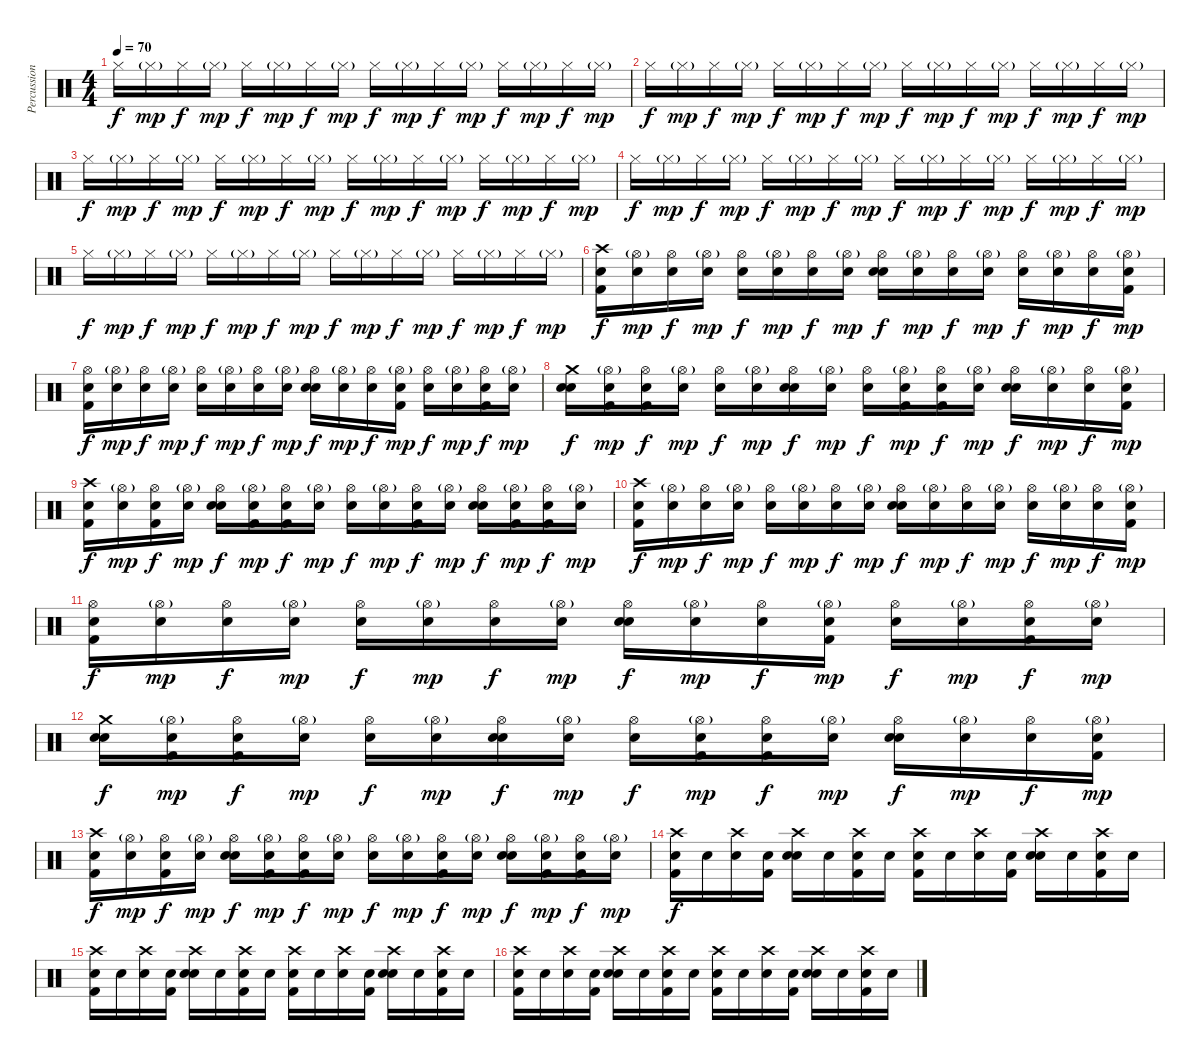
\track ("Percussion" "Percussion") {instrument percussion}
\staff {score}
\articulation defaults
\ts (4 4)
\tempo 70
\clef neutral
\ks c "Hi-Hat (closed)".16{dy f} "Hi-Hat (closed)"{g}.16{dy mp} "Hi-Hat (closed)".16{dy f} "Hi-Hat (closed)"{g}.16{dy mp} "Hi-Hat (closed)".16{dy f} "Hi-Hat (closed)"{g}.16{dy mp} "Hi-Hat (closed)".16{dy f} "Hi-Hat (closed)"{g}.16{dy mp} "Hi-Hat (closed)".16{dy f} "Hi-Hat (closed)"{g}.16{dy mp} "Hi-Hat (closed)".16{dy f} "Hi-Hat (closed)"{g}.16{dy mp} "Hi-Hat (closed)".16{dy f} "Hi-Hat (closed)"{g}.16{dy mp} "Hi-Hat (closed)".16{dy f} "Hi-Hat (closed)"{g}.16{dy mp}
|
"Hi-Hat (closed)".16{dy f} "Hi-Hat (closed)"{g}.16{dy mp} "Hi-Hat (closed)".16{dy f} "Hi-Hat (closed)"{g}.16{dy mp} "Hi-Hat (closed)".16{dy f} "Hi-Hat (closed)"{g}.16{dy mp} "Hi-Hat (closed)".16{dy f} "Hi-Hat (closed)"{g}.16{dy mp} "Hi-Hat (closed)".16{dy f} "Hi-Hat (closed)"{g}.16{dy mp} "Hi-Hat (closed)".16{dy f} "Hi-Hat (closed)"{g}.16{dy mp} "Hi-Hat (closed)".16{dy f} "Hi-Hat (closed)"{g}.16{dy mp} "Hi-Hat (closed)".16{dy f} "Hi-Hat (closed)"{g}.16{dy mp} |
"Hi-Hat (closed)".16{dy f} "Hi-Hat (closed)"{g}.16{dy mp} "Hi-Hat (closed)".16{dy f} "Hi-Hat (closed)"{g}.16{dy mp} "Hi-Hat (closed)".16{dy f} "Hi-Hat (closed)"{g}.16{dy mp} "Hi-Hat (closed)".16{dy f} "Hi-Hat (closed)"{g}.16{dy mp} "Hi-Hat (closed)".16{dy f} "Hi-Hat (closed)"{g}.16{dy mp} "Hi-Hat (closed)".16{dy f} "Hi-Hat (closed)"{g}.16{dy mp} "Hi-Hat (closed)".16{dy f} "Hi-Hat (closed)"{g}.16{dy mp} "Hi-Hat (closed)".16{dy f} "Hi-Hat (closed)"{g}.16{dy mp} |
"Hi-Hat (closed)".16{dy f} "Hi-Hat (closed)"{g}.16{dy mp} "Hi-Hat (closed)".16{dy f} "Hi-Hat (closed)"{g}.16{dy mp} "Hi-Hat (closed)".16{dy f} "Hi-Hat (closed)"{g}.16{dy mp} "Hi-Hat (closed)".16{dy f} "Hi-Hat (closed)"{g}.16{dy mp} "Hi-Hat (closed)".16{dy f} "Hi-Hat (closed)"{g}.16{dy mp} "Hi-Hat (closed)".16{dy f} "Hi-Hat (closed)"{g}.16{dy mp} "Hi-Hat (closed)".16{dy f} "Hi-Hat (closed)"{g}.16{dy mp} "Hi-Hat (closed)".16{dy f} "Hi-Hat (closed)"{g}.16{dy mp} |
"Hi-Hat (closed)".16{dy f} "Hi-Hat (closed)"{g}.16{dy mp} "Hi-Hat (closed)".16{dy f} "Hi-Hat (closed)"{g}.16{dy mp} "Hi-Hat (closed)".16{dy f} "Hi-Hat (closed)"{g}.16{dy mp} "Hi-Hat (closed)".16{dy f} "Hi-Hat (closed)"{g}.16{dy mp} "Hi-Hat (closed)".16{dy f} "Hi-Hat (closed)"{g}.16{dy mp} "Hi-Hat (closed)".16{dy f} "Hi-Hat (closed)"{g}.16{dy mp} "Hi-Hat (closed)".16{dy f} "Hi-Hat (closed)"{g}.16{dy mp} "Hi-Hat (closed)".16{dy f} "Hi-Hat (closed)"{g}.16{dy mp} |
("Snare (hit)" "Crash high (hit)" "Kick (hit) 2").16{dy f} ("Snare (hit)" "Hi-Hat (open)"{g}).16{dy mp} ("Snare (hit)" "Hi-Hat (open)").16{dy f} ("Snare (hit)" "Hi-Hat (open)"{g}).16{dy mp} ("Snare (hit)" "Hi-Hat (open)").16{dy f} ("Snare (hit)" "Hi-Hat (open)"{g}).16{dy mp} ("Snare (hit)" "Hi-Hat (open)").16{dy f} ("Snare (hit)" "Hi-Hat (open)"{g}).16{dy mp} ("Snare (hit)" "Hi-Hat (open)" "Snare (hit) 2").16{dy f} ("Snare (hit)" "Hi-Hat (open)"{g}).16{dy mp} ("Snare (hit)" "Hi-Hat (open)").16{dy f} ("Snare (hit)" "Hi-Hat (open)"{g}).16{dy mp} ("Snare (hit)" "Hi-Hat (open)").16{dy f} ("Snare (hit)" "Hi-Hat (open)"{g}).16{dy mp} ("Snare (hit)" "Hi-Hat (open)").16{dy f} ("Snare (hit)" "Hi-Hat (open)"{g} "Kick (hit) 2").16{dy mp} |
("Snare (hit)" "Hi-Hat (open)" "Kick (hit) 2").16{dy f} ("Snare (hit)" "Hi-Hat (open)"{g}).16{dy mp} ("Snare (hit)" "Hi-Hat (open)").16{dy f} ("Snare (hit)" "Hi-Hat (open)"{g}).16{dy mp} ("Snare (hit)" "Hi-Hat (open)").16{dy f} ("Snare (hit)" "Hi-Hat (open)"{g}).16{dy mp} ("Snare (hit)" "Hi-Hat (open)").16{dy f} ("Snare (hit)" "Hi-Hat (open)"{g}).16{dy mp} ("Snare (hit)" "Hi-Hat (open)" "Snare (hit) 2").16{dy f} ("Snare (hit)" "Hi-Hat (open)"{g}).16{dy mp} ("Snare (hit)" "Hi-Hat (open)").16{dy f} ("Snare (hit)" "Hi-Hat (open)"{g} "Kick (hit) 2").16{dy mp} ("Snare (hit)" "Hi-Hat (open)").16{dy f} ("Snare (hit)" "Hi-Hat (open)"{g}).16{dy mp} ("Snare (hit)" "Hi-Hat (open)" "Kick (hit) 2").16{dy f} ("Snare (hit)" "Hi-Hat (open)"{g}).16{dy mp} |
("Snare (hit)" "Crash medium (hit)" "Snare (hit) 2").16{dy f} ("Snare (hit)" "Hi-Hat (open)"{g} "Kick (hit) 2").16{dy mp} ("Snare (hit)" "Hi-Hat (open)" "Kick (hit) 2").16{dy f} ("Snare (hit)" "Hi-Hat (open)"{g}).16{dy mp} ("Snare (hit)" "Hi-Hat (open)").16{dy f} ("Snare (hit)" "Hi-Hat (open)"{g}).16{dy mp} ("Snare (hit)" "Hi-Hat (open)" "Snare (hit) 2").16{dy f} ("Snare (hit)" "Hi-Hat (open)"{g}).16{dy mp} ("Snare (hit)" "Hi-Hat (open)").16{dy f} ("Snare (hit)" "Hi-Hat (open)"{g} "Kick (hit) 2").16{dy mp} ("Snare (hit)" "Hi-Hat (open)" "Kick (hit) 2").16{dy f} ("Snare (hit)" "Hi-Hat (open)"{g}).16{dy mp} ("Snare (hit)" "Hi-Hat (open)" "Snare (hit) 2").16{dy f} ("Snare (hit)" "Hi-Hat (open)"{g}).16{dy mp} ("Snare (hit)" "Hi-Hat (open)").16{dy f} ("Snare (hit)" "Hi-Hat (open)"{g} "Kick (hit) 2").16{dy mp} |
("Snare (hit)" "Crash high (hit)" "Kick (hit) 2").16{dy f} ("Snare (hit)" "Hi-Hat (open)"{g}).16{dy mp} ("Snare (hit)" "Hi-Hat (open)" "Kick (hit) 2").16{dy f} ("Snare (hit)" "Hi-Hat (open)"{g}).16{dy mp} ("Snare (hit)" "Hi-Hat (open)" "Snare (hit) 2").16{dy f} ("Snare (hit)" "Hi-Hat (open)"{g} "Kick (hit) 2").16{dy mp} ("Snare (hit)" "Hi-Hat (open)" "Kick (hit) 2").16{dy f} ("Snare (hit)" "Hi-Hat (open)"{g}).16{dy mp} ("Snare (hit)" "Hi-Hat (open)").16{dy f} ("Snare (hit)" "Hi-Hat (open)"{g}).16{dy mp} ("Snare (hit)" "Hi-Hat (open)" "Kick (hit) 2").16{dy f} ("Snare (hit)" "Hi-Hat (open)"{g}).16{dy mp} ("Snare (hit)" "Hi-Hat (open)" "Snare (hit) 2").16{dy f} ("Snare (hit)" "Hi-Hat (open)"{g} "Kick (hit) 2").16{dy mp} ("Snare (hit)" "Hi-Hat (open)" "Kick (hit) 2").16{dy f} ("Snare (hit)" "Hi-Hat (open)"{g}).16{dy mp} |
("Snare (hit)" "Crash high (hit)" "Kick (hit) 2").16{dy f} ("Snare (hit)" "Hi-Hat (open)"{g}).16{dy mp} ("Snare (hit)" "Hi-Hat (open)").16{dy f} ("Snare (hit)" "Hi-Hat (open)"{g}).16{dy mp} ("Snare (hit)" "Hi-Hat (open)").16{dy f} ("Snare (hit)" "Hi-Hat (open)"{g}).16{dy mp} ("Snare (hit)" "Hi-Hat (open)").16{dy f} ("Snare (hit)" "Hi-Hat (open)"{g}).16{dy mp} ("Snare (hit)" "Hi-Hat (open)" "Snare (hit) 2").16{dy f} ("Snare (hit)" "Hi-Hat (open)"{g}).16{dy mp} ("Snare (hit)" "Hi-Hat (open)").16{dy f} ("Snare (hit)" "Hi-Hat (open)"{g}).16{dy mp} ("Snare (hit)" "Hi-Hat (open)").16{dy f} ("Snare (hit)" "Hi-Hat (open)"{g}).16{dy mp} ("Snare (hit)" "Hi-Hat (open)").16{dy f} ("Snare (hit)" "Hi-Hat (open)"{g} "Kick (hit) 2").16{dy mp} |
("Snare (hit)" "Hi-Hat (open)" "Kick (hit) 2").16{dy f} ("Snare (hit)" "Hi-Hat (open)"{g}).16{dy mp} ("Snare (hit)" "Hi-Hat (open)").16{dy f} ("Snare (hit)" "Hi-Hat (open)"{g}).16{dy mp} ("Snare (hit)" "Hi-Hat (open)").16{dy f} ("Snare (hit)" "Hi-Hat (open)"{g}).16{dy mp} ("Snare (hit)" "Hi-Hat (open)").16{dy f} ("Snare (hit)" "Hi-Hat (open)"{g}).16{dy mp} ("Snare (hit)" "Hi-Hat (open)" "Snare (hit) 2").16{dy f} ("Snare (hit)" "Hi-Hat (open)"{g}).16{dy mp} ("Snare (hit)" "Hi-Hat (open)").16{dy f} ("Snare (hit)" "Hi-Hat (open)"{g} "Kick (hit) 2").16{dy mp} ("Snare (hit)" "Hi-Hat (open)").16{dy f} ("Snare (hit)" "Hi-Hat (open)"{g}).16{dy mp} ("Snare (hit)" "Hi-Hat (open)" "Kick (hit) 2").16{dy f} ("Snare (hit)" "Hi-Hat (open)"{g}).16{dy mp} |
("Snare (hit)" "Crash medium (hit)" "Snare (hit) 2").16{dy f} ("Snare (hit)" "Hi-Hat (open)"{g} "Kick (hit) 2").16{dy mp} ("Snare (hit)" "Hi-Hat (open)" "Kick (hit) 2").16{dy f} ("Snare (hit)" "Hi-Hat (open)"{g}).16{dy mp} ("Snare (hit)" "Hi-Hat (open)").16{dy f} ("Snare (hit)" "Hi-Hat (open)"{g}).16{dy mp} ("Snare (hit)" "Hi-Hat (open)" "Snare (hit) 2").16{dy f} ("Snare (hit)" "Hi-Hat (open)"{g}).16{dy mp} ("Snare (hit)" "Hi-Hat (open)").16{dy f} ("Snare (hit)" "Hi-Hat (open)"{g} "Kick (hit) 2").16{dy mp} ("Snare (hit)" "Hi-Hat (open)" "Kick (hit) 2").16{dy f} ("Snare (hit)" "Hi-Hat (open)"{g}).16{dy mp} ("Snare (hit)" "Hi-Hat (open)" "Snare (hit) 2").16{dy f} ("Snare (hit)" "Hi-Hat (open)"{g}).16{dy mp} ("Snare (hit)" "Hi-Hat (open)").16{dy f} ("Snare (hit)" "Hi-Hat (open)"{g} "Kick (hit) 2").16{dy mp} |
("Snare (hit)" "Crash high (hit)" "Kick (hit) 2").16{dy f} ("Snare (hit)" "Hi-Hat (open)"{g}).16{dy mp} ("Snare (hit)" "Hi-Hat (open)" "Kick (hit) 2").16{dy f} ("Snare (hit)" "Hi-Hat (open)"{g}).16{dy mp} ("Snare (hit)" "Hi-Hat (open)" "Snare (hit) 2").16{dy f} ("Snare (hit)" "Hi-Hat (open)"{g} "Kick (hit) 2").16{dy mp} ("Snare (hit)" "Hi-Hat (open)" "Kick (hit) 2").16{dy f} ("Snare (hit)" "Hi-Hat (open)"{g}).16{dy mp} ("Snare (hit)" "Hi-Hat (open)").16{dy f} ("Snare (hit)" "Hi-Hat (open)"{g}).16{dy mp} ("Snare (hit)" "Hi-Hat (open)" "Kick (hit) 2").16{dy f} ("Snare (hit)" "Hi-Hat (open)"{g}).16{dy mp} ("Snare (hit)" "Hi-Hat (open)" "Snare (hit) 2").16{dy f} ("Snare (hit)" "Hi-Hat (open)"{g} "Kick (hit) 2").16{dy mp} ("Snare (hit)" "Hi-Hat (open)" "Kick (hit) 2").16{dy f} ("Snare (hit)" "Hi-Hat (open)"{g}).16{dy mp} |
("Snare (hit)" "Crash high (hit)" "Kick (hit) 2").16{dy f} "Snare (hit)".16 ("Snare (hit)" "Crash high (hit)").16 ("Snare (hit)" "Kick (hit) 2").16 ("Snare (hit)" "Crash high (hit)" "Snare (hit) 2").16 "Snare (hit)".16 ("Snare (hit)" "Crash high (hit)" "Kick (hit) 2").16 "Snare (hit)".16 ("Snare (hit)" "Crash high (hit)" "Kick (hit) 2").16 "Snare (hit)".16 ("Snare (hit)" "Crash high (hit)").16 ("Snare (hit)" "Kick (hit) 2").16 ("Snare (hit)" "Crash high (hit)" "Snare (hit) 2").16 "Snare (hit)".16 ("Snare (hit)" "Crash high (hit)" "Kick (hit) 2").16 "Snare (hit)".16 |
("Snare (hit)" "Crash high (hit)" "Kick (hit) 2").16 "Snare (hit)".16 ("Snare (hit)" "Crash high (hit)").16 ("Snare (hit)" "Kick (hit) 2").16 ("Snare (hit)" "Crash high (hit)" "Snare (hit) 2").16 "Snare (hit)".16 ("Snare (hit)" "Crash high (hit)" "Kick (hit) 2").16 "Snare (hit)".16 ("Snare (hit)" "Crash high (hit)" "Kick (hit) 2").16 "Snare (hit)".16 ("Snare (hit)" "Crash high (hit)").16 ("Snare (hit)" "Kick (hit) 2").16 ("Snare (hit)" "Crash high (hit)" "Snare (hit) 2").16 "Snare (hit)".16 ("Snare (hit)" "Crash high (hit)" "Kick (hit) 2").16 "Snare (hit)".16 |
("Snare (hit)" "Crash high (hit)" "Kick (hit) 2").16 "Snare (hit)".16 ("Snare (hit)" "Crash high (hit)").16 ("Snare (hit)" "Kick (hit) 2").16 ("Snare (hit)" "Crash high (hit)" "Snare (hit) 2").16 "Snare (hit)".16 ("Snare (hit)" "Crash high (hit)" "Kick (hit) 2").16 "Snare (hit)".16 ("Snare (hit)" "Crash high (hit)" "Kick (hit) 2").16 "Snare (hit)".16 ("Snare (hit)" "Crash high (hit)").16 ("Snare (hit)" "Kick (hit) 2").16 ("Snare (hit)" "Crash high (hit)" "Snare (hit) 2").16 "Snare (hit)".16 ("Snare (hit)" "Crash high (hit)" "Kick (hit) 2").16 "Snare (hit)".16
